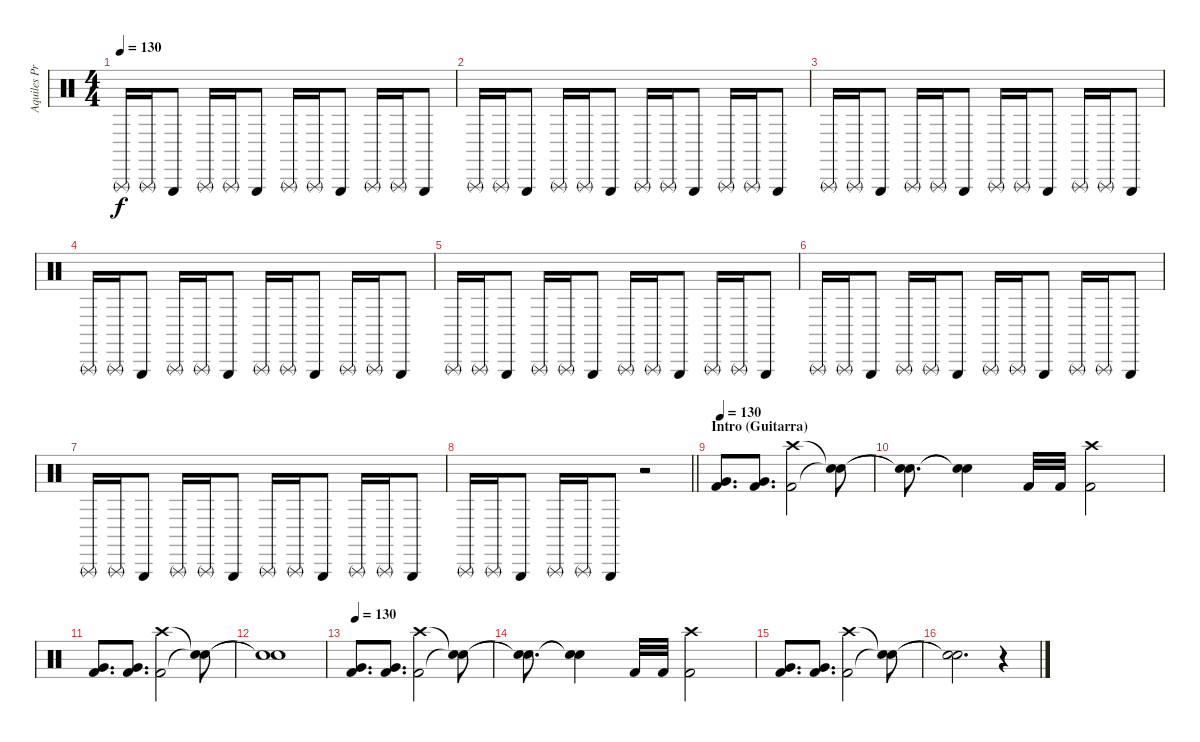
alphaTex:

\track ("Aquiles Priester" "Aquiles Pr") {instrument percussion}
\staff {score}
\articulation defaults
\ts (4 4)
\tempo 130
\clef neutral
\ks c "Triangle (rnute)".16{dy f} "Triangle (rnute)".16 "Triangle (hit)".8 "Triangle (rnute)".16 "Triangle (rnute)".16 "Triangle (hit)".8 "Triangle (rnute)".16 "Triangle (rnute)".16 "Triangle (hit)".8 "Triangle (rnute)".16 "Triangle (rnute)".16 "Triangle (hit)".8
|
"Triangle (rnute)".16 "Triangle (rnute)".16 "Triangle (hit)".8 "Triangle (rnute)".16 "Triangle (rnute)".16 "Triangle (hit)".8 "Triangle (rnute)".16 "Triangle (rnute)".16 "Triangle (hit)".8 "Triangle (rnute)".16 "Triangle (rnute)".16 "Triangle (hit)".8 |
"Triangle (rnute)".16 "Triangle (rnute)".16 "Triangle (hit)".8 "Triangle (rnute)".16 "Triangle (rnute)".16 "Triangle (hit)".8 "Triangle (rnute)".16 "Triangle (rnute)".16 "Triangle (hit)".8 "Triangle (rnute)".16 "Triangle (rnute)".16 "Triangle (hit)".8 |
"Triangle (rnute)".16 "Triangle (rnute)".16 "Triangle (hit)".8 "Triangle (rnute)".16 "Triangle (rnute)".16 "Triangle (hit)".8 "Triangle (rnute)".16 "Triangle (rnute)".16 "Triangle (hit)".8 "Triangle (rnute)".16 "Triangle (rnute)".16 "Triangle (hit)".8 |
"Triangle (rnute)".16 "Triangle (rnute)".16 "Triangle (hit)".8 "Triangle (rnute)".16 "Triangle (rnute)".16 "Triangle (hit)".8 "Triangle (rnute)".16 "Triangle (rnute)".16 "Triangle (hit)".8 "Triangle (rnute)".16 "Triangle (rnute)".16 "Triangle (hit)".8 |
"Triangle (rnute)".16 "Triangle (rnute)".16 "Triangle (hit)".8 "Triangle (rnute)".16 "Triangle (rnute)".16 "Triangle (hit)".8 "Triangle (rnute)".16 "Triangle (rnute)".16 "Triangle (hit)".8 "Triangle (rnute)".16 "Triangle (rnute)".16 "Triangle (hit)".8 |
"Triangle (rnute)".16 "Triangle (rnute)".16 "Triangle (hit)".8 "Triangle (rnute)".16 "Triangle (rnute)".16 "Triangle (hit)".8 "Triangle (rnute)".16 "Triangle (rnute)".16 "Triangle (hit)".8 "Triangle (rnute)".16 "Triangle (rnute)".16 "Triangle (hit)".8 |
\barLineRight lightlight "Triangle (rnute)".16 "Triangle (rnute)".16 "Triangle (hit)".8 "Triangle (rnute)".16 "Triangle (rnute)".16 "Triangle (hit)".8
r.2 |
\section ("" "Intro (Guitarra)")
\tempo 130
("Very Low Tom (hit)" "Kick (hit) 2").8{d} ("Very Low Tom (hit)" "Kick (hit) 2").8{d} ("Crash high (hit)" "Kick (hit) 2").2 ("Snare (hit)"{t} "Snare (hit)"{t}).8 |
("Snare (hit)"{t} "Snare (hit)"{t}).8{d} ("Snare (hit)"{t} "Snare (hit)"{t}).4 "Kick (hit) 2".32 "Kick (hit) 2".32 ("Crash high (hit)" "Kick (hit) 2").2 |
("Very Low Tom (hit)" "Kick (hit) 2").8{d} ("Very Low Tom (hit)" "Kick (hit) 2").8{d} ("Crash high (hit)" "Kick (hit) 2").2 ("Snare (hit)"{t} "Snare (hit)"{t}).8 |
("Snare (hit)"{t} "Snare (hit)"{t}).1 |
\tempo 130
("Very Low Tom (hit)" "Kick (hit) 2").8{d} ("Very Low Tom (hit)" "Kick (hit) 2").8{d} ("Crash high (hit)" "Kick (hit) 2").2 ("Snare (hit)"{t} "Snare (hit)"{t}).8 |
("Snare (hit)"{t} "Snare (hit)"{t}).8{d} ("Snare (hit)"{t} "Snare (hit)"{t}).4 "Kick (hit) 2".32 "Kick (hit) 2".32 ("Crash high (hit)" "Kick (hit) 2").2 |
("Very Low Tom (hit)" "Kick (hit) 2").8{d} ("Very Low Tom (hit)" "Kick (hit) 2").8{d} ("Crash high (hit)" "Kick (hit) 2").2 ("Snare (hit)"{t} "Snare (hit)"{t}).8 |
("Snare (hit)"{t} "Snare (hit)"{t}).2{d} r.4
